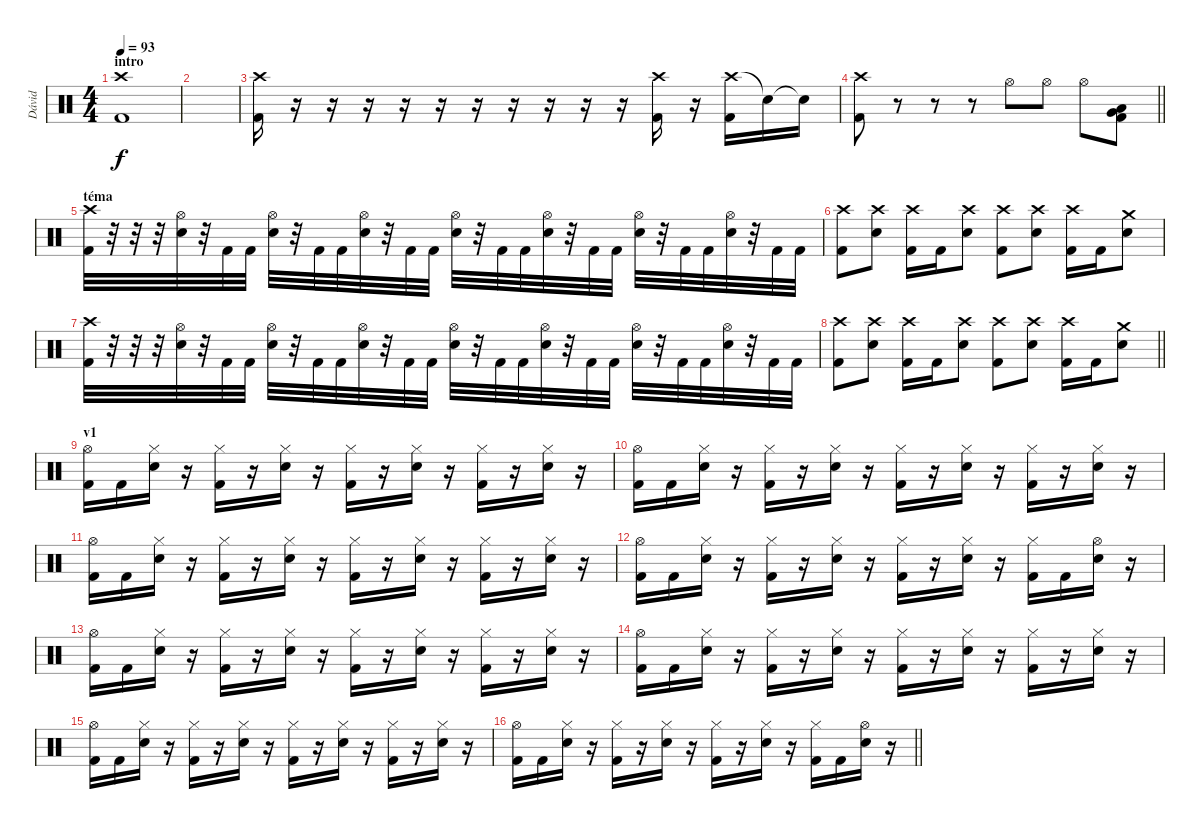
\track ("Dávid" "Dávid") {instrument percussion}
\staff {score}
\articulation defaults
\ts (4 4)
\section ("" "intro")
\tempo 93
\clef neutral
\ks c
("Crash high (hit)" "Kick (hit) 2").1{dy f} |
|
("Crash high (hit)" "Kick (hit) 2").16 r.16 r.16 r.16 r.16 r.16 r.16 r.16 r.16 r.16 r.16 ("Crash high (hit)" "Kick (hit) 2").16 r.16 ("Crash high (hit)" "Kick (hit) 2").16 "Snare (hit)"{t}.16 "Snare (hit)"{t}.16 |
\barLineRight lightlight
("Crash high (hit)" "Kick (hit) 2").8 r.8 r.8 r.8 "Hi-Hat (open)".8 "Hi-Hat (open)".8 "Hi-Hat (open)".8 ("Kick (hit) 2" "Very Low Tom (hit)" "Low Floor Tom (hit)").8 |
\section ("" "téma")
("Crash high (hit)" "Kick (hit) 2").32 r.32 r.32 r.32 ("Hi-Hat (open)" "Electric Snare (hit)").32 r.32 "Kick (hit) 2".32 "Kick (hit) 2".32 ("Hi-Hat (open)" "Electric Snare (hit)").32 r.32 "Kick (hit) 2".32 "Kick (hit) 2".32 ("Hi-Hat (open)" "Electric Snare (hit)").32 r.32 "Kick (hit) 2".32 "Kick (hit) 2".32 ("Hi-Hat (open)" "Electric Snare (hit)").32 r.32 "Kick (hit) 2".32 "Kick (hit) 2".32 ("Hi-Hat (open)" "Electric Snare (hit)").32 r.32 "Kick (hit) 2".32 "Kick (hit) 2".32 ("Hi-Hat (open)" "Electric Snare (hit)").32 r.32 "Kick (hit) 2".32 "Kick (hit) 2".32 ("Hi-Hat (open)" "Electric Snare (hit)").32 r.32 "Kick (hit) 2".32 "Kick (hit) 2".32 |
("Crash high (hit)" "Kick (hit) 2").8 ("Crash high (hit)" "Electric Snare (hit)").8 ("Crash high (hit)" "Kick (hit) 2").16 "Kick (hit) 2".16 ("Crash high (hit)" "Electric Snare (hit)").8 ("Crash high (hit)" "Kick (hit) 2").8 ("Crash high (hit)" "Electric Snare (hit)").8 ("Crash high (hit)" "Kick (hit) 2").16 "Kick (hit) 2".16 ("Crash medium (hit)" "Electric Snare (hit)").8 |
("Crash high (hit)" "Kick (hit) 2").32 r.32 r.32 r.32 ("Hi-Hat (open)" "Electric Snare (hit)").32 r.32 "Kick (hit) 2".32 "Kick (hit) 2".32 ("Hi-Hat (open)" "Electric Snare (hit)").32 r.32 "Kick (hit) 2".32 "Kick (hit) 2".32 ("Hi-Hat (open)" "Electric Snare (hit)").32 r.32 "Kick (hit) 2".32 "Kick (hit) 2".32 ("Hi-Hat (open)" "Electric Snare (hit)").32 r.32 "Kick (hit) 2".32 "Kick (hit) 2".32 ("Hi-Hat (open)" "Electric Snare (hit)").32 r.32 "Kick (hit) 2".32 "Kick (hit) 2".32 ("Hi-Hat (open)" "Electric Snare (hit)").32 r.32 "Kick (hit) 2".32 "Kick (hit) 2".32 ("Hi-Hat (open)" "Electric Snare (hit)").32 r.32 "Kick (hit) 2".32 "Kick (hit) 2".32 |
\barLineRight lightlight
("Crash high (hit)" "Kick (hit) 2").8 ("Crash high (hit)" "Electric Snare (hit)").8 ("Crash high (hit)" "Kick (hit) 2").16 "Kick (hit) 2".16 ("Crash high (hit)" "Electric Snare (hit)").8 ("Crash high (hit)" "Kick (hit) 2").8 ("Crash high (hit)" "Electric Snare (hit)").8 ("Crash high (hit)" "Kick (hit) 2").16 "Kick (hit) 2".16 ("Crash medium (hit)" "Electric Snare (hit)").8 |
\section ("" "v1")
("Hi-Hat (open)" "Kick (hit) 2").16 "Kick (hit) 2".16 ("Hi-Hat (closed)" "Electric Snare (hit)").16 r.16 ("Hi-Hat (closed)" "Kick (hit) 2").16 r.16 ("Hi-Hat (closed)" "Electric Snare (hit)").16 r.16 ("Hi-Hat (closed)" "Kick (hit) 2").16 r.16 ("Hi-Hat (closed)" "Electric Snare (hit)").16 r.16 ("Hi-Hat (closed)" "Kick (hit) 2").16 r.16 ("Hi-Hat (closed)" "Electric Snare (hit)").16 r.16 |
("Hi-Hat (open)" "Kick (hit) 2").16 "Kick (hit) 2".16 ("Hi-Hat (closed)" "Electric Snare (hit)").16 r.16 ("Hi-Hat (closed)" "Kick (hit) 2").16 r.16 ("Hi-Hat (closed)" "Electric Snare (hit)").16 r.16 ("Hi-Hat (closed)" "Kick (hit) 2").16 r.16 ("Hi-Hat (closed)" "Electric Snare (hit)").16 r.16 ("Hi-Hat (closed)" "Kick (hit) 2").16 r.16 ("Hi-Hat (closed)" "Electric Snare (hit)").16 r.16 |
("Hi-Hat (open)" "Kick (hit) 2").16 "Kick (hit) 2".16 ("Hi-Hat (closed)" "Electric Snare (hit)").16 r.16 ("Hi-Hat (closed)" "Kick (hit) 2").16 r.16 ("Hi-Hat (closed)" "Electric Snare (hit)").16 r.16 ("Hi-Hat (closed)" "Kick (hit) 2").16 r.16 ("Hi-Hat (closed)" "Electric Snare (hit)").16 r.16 ("Hi-Hat (closed)" "Kick (hit) 2").16 r.16 ("Hi-Hat (closed)" "Electric Snare (hit)").16 r.16 |
("Hi-Hat (open)" "Kick (hit) 2").16 "Kick (hit) 2".16 ("Hi-Hat (closed)" "Electric Snare (hit)").16 r.16 ("Hi-Hat (closed)" "Kick (hit) 2").16 r.16 ("Hi-Hat (closed)" "Electric Snare (hit)").16 r.16 ("Hi-Hat (closed)" "Kick (hit) 2").16 r.16 ("Hi-Hat (closed)" "Electric Snare (hit)").16 r.16 ("Hi-Hat (closed)" "Kick (hit) 2").16 "Kick (hit) 2".16 ("Hi-Hat (open)" "Electric Snare (hit)").16 r.16 |
("Hi-Hat (open)" "Kick (hit) 2").16 "Kick (hit) 2".16 ("Hi-Hat (closed)" "Electric Snare (hit)").16 r.16 ("Hi-Hat (closed)" "Kick (hit) 2").16 r.16 ("Hi-Hat (closed)" "Electric Snare (hit)").16 r.16 ("Hi-Hat (closed)" "Kick (hit) 2").16 r.16 ("Hi-Hat (closed)" "Electric Snare (hit)").16 r.16 ("Hi-Hat (closed)" "Kick (hit) 2").16 r.16 ("Hi-Hat (closed)" "Electric Snare (hit)").16 r.16 |
("Hi-Hat (open)" "Kick (hit) 2").16 "Kick (hit) 2".16 ("Hi-Hat (closed)" "Electric Snare (hit)").16 r.16 ("Hi-Hat (closed)" "Kick (hit) 2").16 r.16 ("Hi-Hat (closed)" "Electric Snare (hit)").16 r.16 ("Hi-Hat (closed)" "Kick (hit) 2").16 r.16 ("Hi-Hat (closed)" "Electric Snare (hit)").16 r.16 ("Hi-Hat (closed)" "Kick (hit) 2").16 r.16 ("Hi-Hat (closed)" "Electric Snare (hit)").16 r.16 |
("Hi-Hat (open)" "Kick (hit) 2").16 "Kick (hit) 2".16 ("Hi-Hat (closed)" "Electric Snare (hit)").16 r.16 ("Hi-Hat (closed)" "Kick (hit) 2").16 r.16 ("Hi-Hat (closed)" "Electric Snare (hit)").16 r.16 ("Hi-Hat (closed)" "Kick (hit) 2").16 r.16 ("Hi-Hat (closed)" "Electric Snare (hit)").16 r.16 ("Hi-Hat (closed)" "Kick (hit) 2").16 r.16 ("Hi-Hat (closed)" "Electric Snare (hit)").16 r.16 |
\barLineRight lightlight
("Hi-Hat (open)" "Kick (hit) 2").16 "Kick (hit) 2".16 ("Hi-Hat (closed)" "Electric Snare (hit)").16 r.16 ("Hi-Hat (closed)" "Kick (hit) 2").16 r.16 ("Hi-Hat (closed)" "Electric Snare (hit)").16 r.16 ("Hi-Hat (closed)" "Kick (hit) 2").16 r.16 ("Hi-Hat (closed)" "Electric Snare (hit)").16 r.16 ("Hi-Hat (closed)" "Kick (hit) 2").16 "Kick (hit) 2".16 ("Hi-Hat (open)" "Electric Snare (hit)").16 r.16
